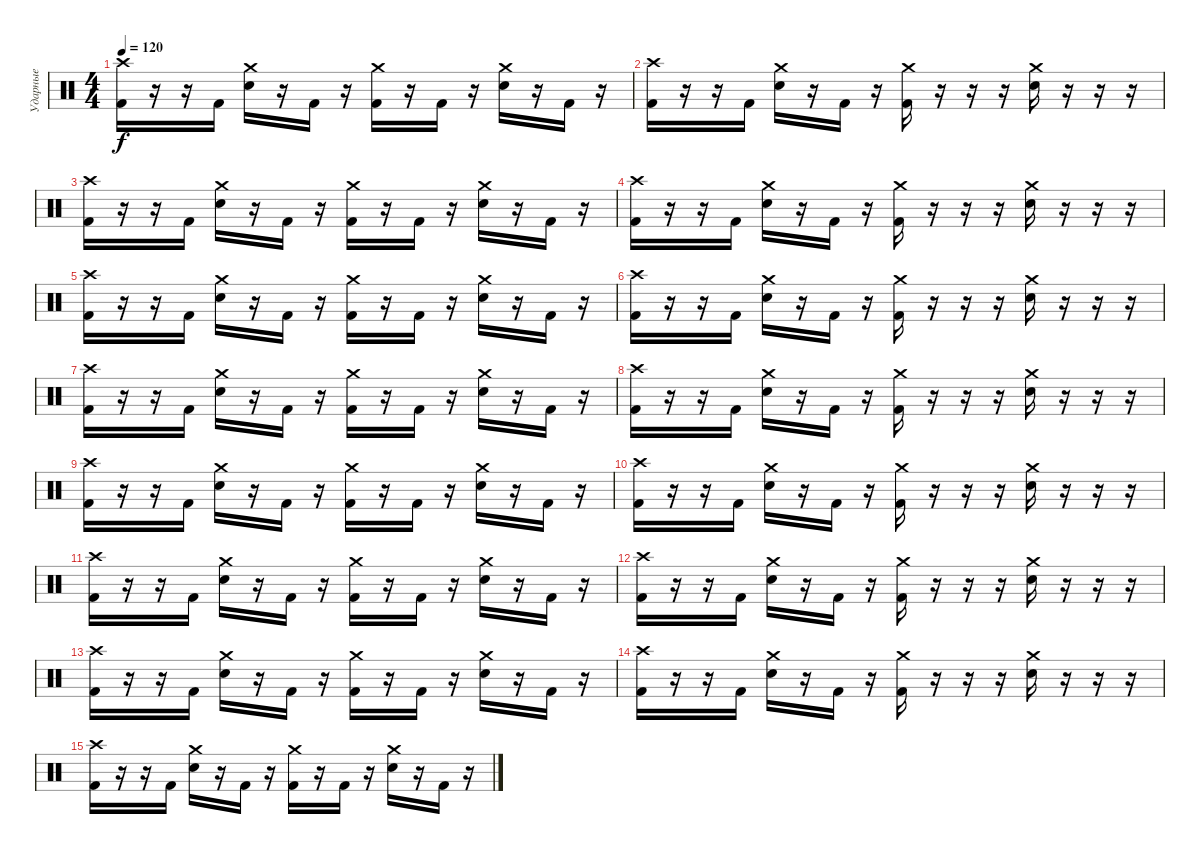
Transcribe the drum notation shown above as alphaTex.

\track ("Ударные" "Ударные") {instrument percussion}
\staff
\articulation defaults
\ts (4 4)
\tempo 120
\clef neutral
\ks c
("Crash high (hit)" "Kick (hit) 2").16{dy f} r.16 r.16 "Kick (hit) 2".16 ("Crash medium (hit)" "Electric Snare (hit)").16 r.16 "Kick (hit) 2".16 r.16 ("Crash medium (hit)" "Kick (hit) 2").16 r.16 "Kick (hit) 2".16 r.16 ("Crash medium (hit)" "Electric Snare (hit)").16 r.16 "Kick (hit) 2".16 r.16 |
("Crash high (hit)" "Kick (hit) 2").16 r.16 r.16 "Kick (hit) 2".16 ("Crash medium (hit)" "Electric Snare (hit)").16 r.16 "Kick (hit) 2".16 r.16 ("Crash medium (hit)" "Kick (hit) 2").16 r.16 r.16 r.16 ("Crash medium (hit)" "Electric Snare (hit)").16 r.16 r.16 r.16 |
("Crash high (hit)" "Kick (hit) 2").16 r.16 r.16 "Kick (hit) 2".16 ("Crash medium (hit)" "Electric Snare (hit)").16 r.16 "Kick (hit) 2".16 r.16 ("Crash medium (hit)" "Kick (hit) 2").16 r.16 "Kick (hit) 2".16 r.16 ("Crash medium (hit)" "Electric Snare (hit)").16 r.16 "Kick (hit) 2".16 r.16 |
("Crash high (hit)" "Kick (hit) 2").16 r.16 r.16 "Kick (hit) 2".16 ("Crash medium (hit)" "Electric Snare (hit)").16 r.16 "Kick (hit) 2".16 r.16 ("Crash medium (hit)" "Kick (hit) 2").16 r.16 r.16 r.16 ("Crash medium (hit)" "Electric Snare (hit)").16 r.16 r.16 r.16 |
("Crash high (hit)" "Kick (hit) 2").16 r.16 r.16 "Kick (hit) 2".16 ("Crash medium (hit)" "Electric Snare (hit)").16 r.16 "Kick (hit) 2".16 r.16 ("Crash medium (hit)" "Kick (hit) 2").16 r.16 "Kick (hit) 2".16 r.16 ("Crash medium (hit)" "Electric Snare (hit)").16 r.16 "Kick (hit) 2".16 r.16 |
("Crash high (hit)" "Kick (hit) 2").16 r.16 r.16 "Kick (hit) 2".16 ("Crash medium (hit)" "Electric Snare (hit)").16 r.16 "Kick (hit) 2".16 r.16 ("Crash medium (hit)" "Kick (hit) 2").16 r.16 r.16 r.16 ("Crash medium (hit)" "Electric Snare (hit)").16 r.16 r.16 r.16 |
("Crash high (hit)" "Kick (hit) 2").16 r.16 r.16 "Kick (hit) 2".16 ("Crash medium (hit)" "Electric Snare (hit)").16 r.16 "Kick (hit) 2".16 r.16 ("Crash medium (hit)" "Kick (hit) 2").16 r.16 "Kick (hit) 2".16 r.16 ("Crash medium (hit)" "Electric Snare (hit)").16 r.16 "Kick (hit) 2".16 r.16 |
("Crash high (hit)" "Kick (hit) 2").16 r.16 r.16 "Kick (hit) 2".16 ("Crash medium (hit)" "Electric Snare (hit)").16 r.16 "Kick (hit) 2".16 r.16 ("Crash medium (hit)" "Kick (hit) 2").16 r.16 r.16 r.16 ("Crash medium (hit)" "Electric Snare (hit)").16 r.16 r.16 r.16 |
("Crash high (hit)" "Kick (hit) 2").16 r.16 r.16 "Kick (hit) 2".16 ("Crash medium (hit)" "Electric Snare (hit)").16 r.16 "Kick (hit) 2".16 r.16 ("Crash medium (hit)" "Kick (hit) 2").16 r.16 "Kick (hit) 2".16 r.16 ("Crash medium (hit)" "Electric Snare (hit)").16 r.16 "Kick (hit) 2".16 r.16 |
("Crash high (hit)" "Kick (hit) 2").16 r.16 r.16 "Kick (hit) 2".16 ("Crash medium (hit)" "Electric Snare (hit)").16 r.16 "Kick (hit) 2".16 r.16 ("Crash medium (hit)" "Kick (hit) 2").16 r.16 r.16 r.16 ("Crash medium (hit)" "Electric Snare (hit)").16 r.16 r.16 r.16 |
("Crash high (hit)" "Kick (hit) 2").16 r.16 r.16 "Kick (hit) 2".16 ("Crash medium (hit)" "Electric Snare (hit)").16 r.16 "Kick (hit) 2".16 r.16 ("Crash medium (hit)" "Kick (hit) 2").16 r.16 "Kick (hit) 2".16 r.16 ("Crash medium (hit)" "Electric Snare (hit)").16 r.16 "Kick (hit) 2".16 r.16 |
("Crash high (hit)" "Kick (hit) 2").16 r.16 r.16 "Kick (hit) 2".16 ("Crash medium (hit)" "Electric Snare (hit)").16 r.16 "Kick (hit) 2".16 r.16 ("Crash medium (hit)" "Kick (hit) 2").16 r.16 r.16 r.16 ("Crash medium (hit)" "Electric Snare (hit)").16 r.16 r.16 r.16 |
("Crash high (hit)" "Kick (hit) 2").16 r.16 r.16 "Kick (hit) 2".16 ("Crash medium (hit)" "Electric Snare (hit)").16 r.16 "Kick (hit) 2".16 r.16 ("Crash medium (hit)" "Kick (hit) 2").16 r.16 "Kick (hit) 2".16 r.16 ("Crash medium (hit)" "Electric Snare (hit)").16 r.16 "Kick (hit) 2".16 r.16 |
("Crash high (hit)" "Kick (hit) 2").16 r.16 r.16 "Kick (hit) 2".16 ("Crash medium (hit)" "Electric Snare (hit)").16 r.16 "Kick (hit) 2".16 r.16 ("Crash medium (hit)" "Kick (hit) 2").16 r.16 r.16 r.16 ("Crash medium (hit)" "Electric Snare (hit)").16 r.16 r.16 r.16 |
("Crash high (hit)" "Kick (hit) 2").16 r.16 r.16 "Kick (hit) 2".16 ("Crash medium (hit)" "Electric Snare (hit)").16 r.16 "Kick (hit) 2".16 r.16 ("Crash medium (hit)" "Kick (hit) 2").16 r.16 "Kick (hit) 2".16 r.16 ("Crash medium (hit)" "Electric Snare (hit)").16 r.16 "Kick (hit) 2".16 r.16
